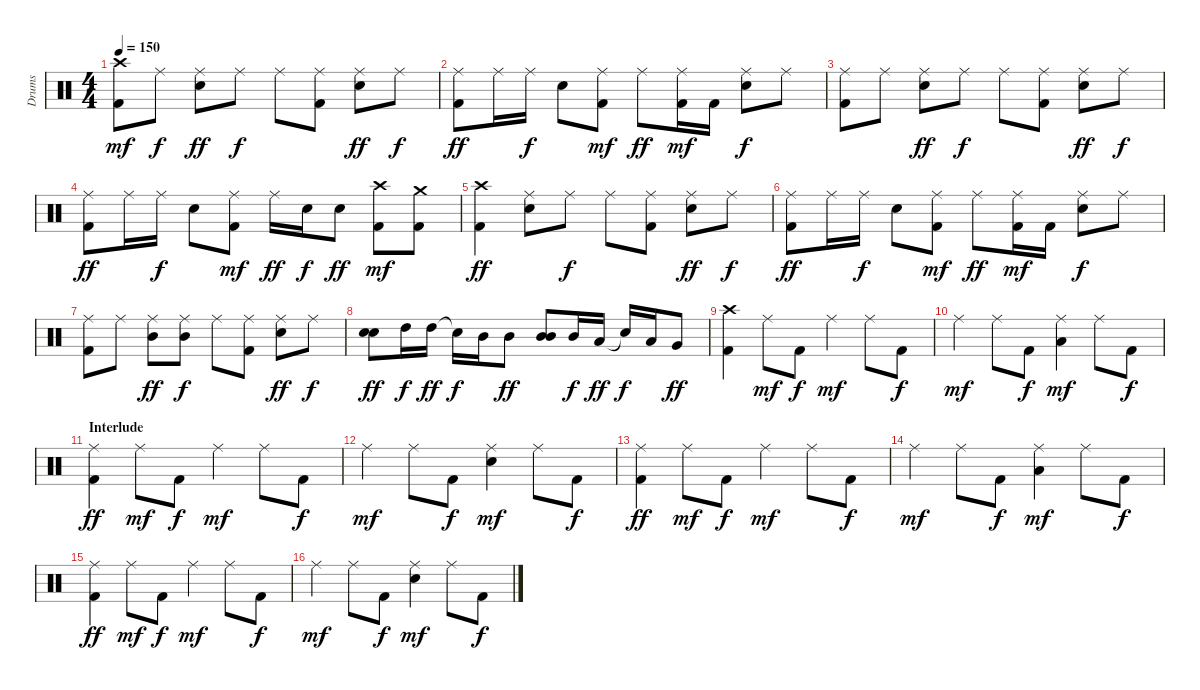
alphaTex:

\track ("Drums" "Drums") {instrument percussion}
\staff {score}
\articulation defaults
\ts (4 4)
\tempo 150
\clef neutral
\ks c
("Crash high (hit)" "Kick (hit) 2").8{dy mf} "Ride (middle)".8{dy f} ("Ride (middle)" "Snare (hit) 2").8{dy ff} "Ride (middle)".8{dy f} "Ride (middle)".8 ("Ride (middle)" "Kick (hit) 2").8 ("Ride (middle)" "Snare (hit) 2").8{dy ff} "Ride (middle)".8{dy f} |
("Ride (middle)" "Kick (hit) 2").8{dy ff} "Ride (middle)".16 "Ride (middle)".16{dy f} "Snare (hit) 2".8 ("Ride (middle)" "Kick (hit) 2").8{dy mf} "Ride (middle)".8{dy ff} ("Ride (middle)" "Kick (hit) 2").16{dy mf} "Kick (hit) 2".16 ("Ride (middle)" "Snare (hit) 2").8{dy f} "Ride (middle)".8 |
("Ride (middle)" "Kick (hit) 2").8 "Ride (middle)".8 ("Ride (middle)" "Snare (hit) 2").8{dy ff} "Ride (middle)".8{dy f} "Ride (middle)".8 ("Ride (middle)" "Kick (hit) 2").8 ("Ride (middle)" "Snare (hit) 2").8{dy ff} "Ride (middle)".8{dy f} |
("Ride (middle)" "Kick (hit) 2").8{dy ff} "Ride (middle)".16 "Ride (middle)".16{dy f} "Snare (hit) 2".8 ("Ride (middle)" "Kick (hit) 2").8{dy mf} "Ride (middle)".16{dy ff} "Snare (hit) 2".16{dy f} "Snare (hit) 2".8{dy ff} ("Crash high (hit)" "Kick (hit) 2").8{dy mf} ("Crash medium (hit)" "Kick (hit) 2").8 |
("Crash high (hit)" "Kick (hit) 2").4{dy ff} ("Ride (middle)" "Snare (hit) 2").8 "Ride (middle)".8{dy f} "Ride (middle)".8 ("Ride (middle)" "Kick (hit) 2").8 ("Ride (middle)" "Snare (hit) 2").8{dy ff} "Ride (middle)".8{dy f} |
("Ride (middle)" "Kick (hit) 2").8{dy ff} "Ride (middle)".16 "Ride (middle)".16{dy f} "Snare (hit) 2".8 ("Ride (middle)" "Kick (hit) 2").8{dy mf} "Ride (middle)".8{dy ff} ("Ride (middle)" "Kick (hit) 2").16{dy mf} "Kick (hit) 2".16 ("Ride (middle)" "Snare (hit) 2").8{dy f} "Ride (middle)".8 |
("Ride (middle)" "Kick (hit) 2").8 "Ride (middle)".8 ("Ride (middle)" "Mid Tom (hit)").8{dy ff} ("Ride (middle)" "Mid Tom (hit)").8{dy f} "Ride (middle)".8 ("Kick (hit) 2" "Ride (middle)").8 ("Snare (hit) 2" "Ride (middle)").8{dy ff} "Ride (middle)".8{dy f} |
("Snare (hit) 2" "Snare (hit) 2").8{dy ff} "High Tom (hit)".16{dy f} "High Tom (hit)".16{dy ff} "Snare (hit)"{t}.16{dy f} "Mid Tom (hit)".16 "Mid Tom (hit)".8{dy ff} ("Mid Tom (hit)" "Mid Tom (hit)").8 "Mid Tom (hit)".16{dy f} "Low Tom (hit)".16{dy ff} "Snare (hit)"{t}.16{dy f} "Low Tom (hit)".16 "Very Low Tom (hit)".8{dy ff} |
("Crash high (hit)" "Kick (hit) 2").4 "Ride (middle)".8{dy mf} "Kick (hit) 2".8{dy f} "Ride (middle)".4{dy mf} "Ride (middle)".8 "Kick (hit) 2".8{dy f} |
"Ride (middle)".4{dy mf} "Ride (middle)".8 "Kick (hit) 2".8{dy f} ("Low Floor Tom (hit)" "Ride (middle)").4{dy mf} "Ride (middle)".8 "Kick (hit) 2".8{dy f} |
\section ("" "Interlude")
("Ride (middle)" "Kick (hit) 2").4{dy ff} "Ride (middle)".8{dy mf} "Kick (hit) 2".8{dy f} "Ride (middle)".4{dy mf} "Ride (middle)".8 "Kick (hit) 2".8{dy f} |
"Ride (middle)".4{dy mf} "Ride (middle)".8 "Kick (hit) 2".8{dy f} ("Snare (hit) 2" "Ride (middle)").4{dy mf} "Ride (middle)".8 "Kick (hit) 2".8{dy f} |
("Ride (middle)" "Kick (hit) 2").4{dy ff} "Ride (middle)".8{dy mf} "Kick (hit) 2".8{dy f} "Ride (middle)".4{dy mf} "Ride (middle)".8 "Kick (hit) 2".8{dy f} |
"Ride (middle)".4{dy mf} "Ride (middle)".8 "Kick (hit) 2".8{dy f} ("Low Floor Tom (hit)" "Ride (middle)").4{dy mf} "Ride (middle)".8 "Kick (hit) 2".8{dy f} |
("Ride (middle)" "Kick (hit) 2").4{dy ff} "Ride (middle)".8{dy mf} "Kick (hit) 2".8{dy f} "Ride (middle)".4{dy mf} "Ride (middle)".8 "Kick (hit) 2".8{dy f} |
"Ride (middle)".4{dy mf} "Ride (middle)".8 "Kick (hit) 2".8{dy f} ("Snare (hit) 2" "Ride (middle)").4{dy mf} "Ride (middle)".8 "Kick (hit) 2".8{dy f}
